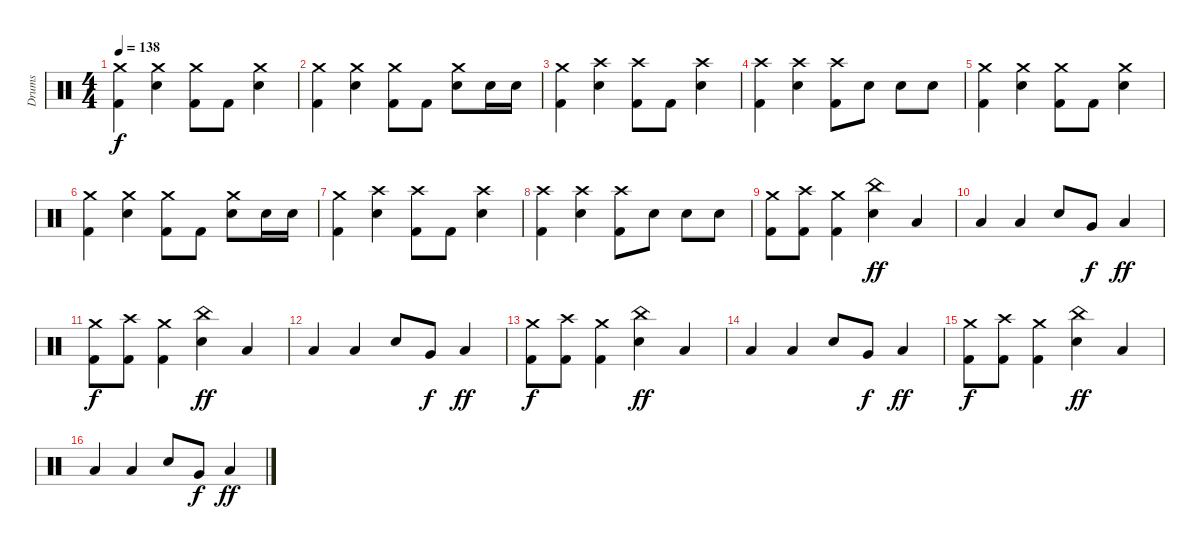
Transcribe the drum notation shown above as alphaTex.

\track ("Drums" "Drums") {instrument percussion}
\staff
\articulation defaults
\ts (4 4)
\tempo 138
\clef neutral
\ks c
("Crash medium (hit)" "Kick (hit) 2").4{dy f} ("Crash medium (hit)" "Snare (hit) 2").4 ("Crash medium (hit)" "Kick (hit) 2").8 "Kick (hit) 2".8 ("Crash medium (hit)" "Snare (hit) 2").4 |
("Crash medium (hit)" "Kick (hit) 2").4 ("Crash medium (hit)" "Snare (hit) 2").4 ("Crash medium (hit)" "Kick (hit) 2").8 "Kick (hit) 2".8 ("Crash medium (hit)" "Snare (hit) 2").8 "Snare (hit) 2".16 "Snare (hit) 2".16 |
("Crash medium (hit)" "Kick (hit) 2").4 ("Crash high (hit)" "Snare (hit) 2").4 ("Crash high (hit)" "Kick (hit) 2").8 "Kick (hit) 2".8 ("Crash high (hit)" "Snare (hit) 2").4 |
("Crash high (hit)" "Kick (hit) 2").4 ("Crash high (hit)" "Snare (hit) 2").4 ("Crash high (hit)" "Kick (hit) 2").8 "Snare (hit) 2".8 "Snare (hit) 2".8 "Snare (hit) 2".8 |
("Crash medium (hit)" "Kick (hit) 2").4 ("Crash medium (hit)" "Snare (hit) 2").4 ("Crash medium (hit)" "Kick (hit) 2").8 "Kick (hit) 2".8 ("Crash medium (hit)" "Snare (hit) 2").4 |
("Crash medium (hit)" "Kick (hit) 2").4 ("Crash medium (hit)" "Snare (hit) 2").4 ("Crash medium (hit)" "Kick (hit) 2").8 "Kick (hit) 2".8 ("Crash medium (hit)" "Snare (hit) 2").8 "Snare (hit) 2".16 "Snare (hit) 2".16 |
("Crash medium (hit)" "Kick (hit) 2").4 ("Crash high (hit)" "Snare (hit) 2").4 ("Crash high (hit)" "Kick (hit) 2").8 "Kick (hit) 2".8 ("Crash high (hit)" "Snare (hit) 2").4 |
("Crash high (hit)" "Kick (hit) 2").4 ("Crash high (hit)" "Snare (hit) 2").4 ("Crash high (hit)" "Kick (hit) 2").8 "Snare (hit) 2".8 "Snare (hit) 2".8 "Snare (hit) 2".8 |
("Crash medium (hit)" "Kick (hit) 2").8 ("Crash high (hit)" "Kick (hit) 2").8 ("Crash medium (hit)" "Kick (hit) 2").4 ("China (hit)" "Snare (hit) 2").4{dy ff} "Low Floor Tom (hit)".4 |
"Low Floor Tom (hit)".4 "Low Floor Tom (hit)".4 "Snare (hit) 2".8 "Very Low Tom (hit)".8{dy f} "Low Floor Tom (hit)".4{dy ff} |
("Crash medium (hit)" "Kick (hit) 2").8{dy f} ("Crash high (hit)" "Kick (hit) 2").8 ("Crash medium (hit)" "Kick (hit) 2").4 ("China (hit)" "Snare (hit) 2").4{dy ff} "Low Floor Tom (hit)".4 |
"Low Floor Tom (hit)".4 "Low Floor Tom (hit)".4 "Snare (hit) 2".8 "Very Low Tom (hit)".8{dy f} "Low Floor Tom (hit)".4{dy ff} |
("Crash medium (hit)" "Kick (hit) 2").8{dy f} ("Crash high (hit)" "Kick (hit) 2").8 ("Crash medium (hit)" "Kick (hit) 2").4 ("China (hit)" "Snare (hit) 2").4{dy ff} "Low Floor Tom (hit)".4 |
"Low Floor Tom (hit)".4 "Low Floor Tom (hit)".4 "Snare (hit) 2".8 "Very Low Tom (hit)".8{dy f} "Low Floor Tom (hit)".4{dy ff} |
("Crash medium (hit)" "Kick (hit) 2").8{dy f} ("Crash high (hit)" "Kick (hit) 2").8 ("Crash medium (hit)" "Kick (hit) 2").4 ("China (hit)" "Snare (hit) 2").4{dy ff} "Low Floor Tom (hit)".4 |
"Low Floor Tom (hit)".4 "Low Floor Tom (hit)".4 "Snare (hit) 2".8 "Very Low Tom (hit)".8{dy f} "Low Floor Tom (hit)".4{dy ff}
